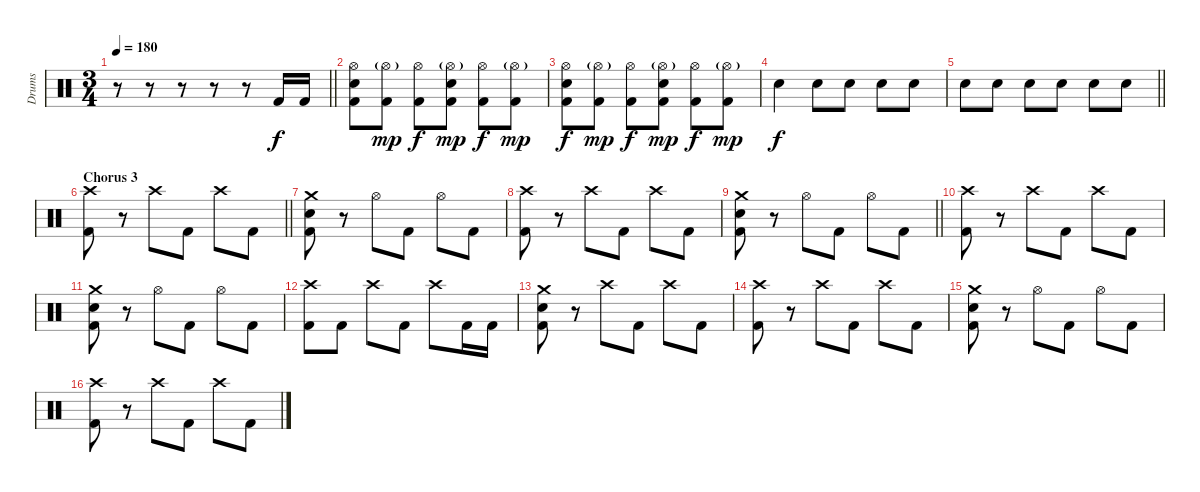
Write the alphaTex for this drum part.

\track ("Drums" "Drums") {instrument percussion}
\staff {score}
\articulation defaults
\ts (3 4)
\tempo 180
\clef neutral
\barLineRight lightlight
\ks c
r.8{dy f} r.8 r.8 r.8 r.8 "Kick (hit) 2".16 "Kick (hit) 2".16 |
("Hi-Hat (open)" "Electric Snare (hit)" "Kick (hit) 2").8 ("Hi-Hat (open)"{g} "Kick (hit) 2").8{dy mp} ("Hi-Hat (open)" "Kick (hit) 2").8{dy f} ("Hi-Hat (open)"{g} "Electric Snare (hit)" "Kick (hit) 2").8{dy mp} ("Hi-Hat (open)" "Kick (hit) 2").8{dy f} ("Hi-Hat (open)"{g} "Kick (hit) 2").8{dy mp} |
("Hi-Hat (open)" "Electric Snare (hit)" "Kick (hit) 2").8{dy f} ("Hi-Hat (open)"{g} "Kick (hit) 2").8{dy mp} ("Hi-Hat (open)" "Kick (hit) 2").8{dy f} ("Hi-Hat (open)"{g} "Electric Snare (hit)" "Kick (hit) 2").8{dy mp} ("Hi-Hat (open)" "Kick (hit) 2").8{dy f} ("Hi-Hat (open)"{g} "Kick (hit) 2").8{dy mp} |
"Electric Snare (hit)".4{dy f} "Electric Snare (hit)".8{volume 3} "Electric Snare (hit)".8{volume 13} "Electric Snare (hit)".8 "Electric Snare (hit)".8 |
\barLineRight lightlight "Electric Snare (hit)".8 "Electric Snare (hit)".8 "Electric Snare (hit)".8 "Electric Snare (hit)".8 "Electric Snare (hit)".8 "Electric Snare (hit)".8
|
\section ("" "Chorus 3")
\barLineRight lightlight
("Crash high (hit)" "Kick (hit) 2").8 r.8 "Crash high (hit)".8 "Kick (hit) 2".8 "Crash high (hit)".8 "Kick (hit) 2".8 |
("Crash medium (hit)" "Electric Snare (hit)" "Kick (hit) 2").8 r.8 "Hi-Hat (open)".8 "Kick (hit) 2".8 "Hi-Hat (open)".8 "Kick (hit) 2".8 |
("Crash high (hit)" "Kick (hit) 2").8 r.8 "Crash high (hit)".8 "Kick (hit) 2".8 "Crash high (hit)".8 "Kick (hit) 2".8 |
\barLineRight lightlight
("Crash medium (hit)" "Electric Snare (hit)" "Kick (hit) 2").8 r.8 "Hi-Hat (open)".8 "Kick (hit) 2".8 "Hi-Hat (open)".8 "Kick (hit) 2".8 |
("Crash high (hit)" "Kick (hit) 2").8 r.8 "Crash high (hit)".8 "Kick (hit) 2".8 "Crash high (hit)".8 "Kick (hit) 2".8 |
("Crash medium (hit)" "Electric Snare (hit)" "Kick (hit) 2").8 r.8 "Hi-Hat (open)".8 "Kick (hit) 2".8 "Hi-Hat (open)".8 "Kick (hit) 2".8 |
("Crash high (hit)" "Kick (hit) 2").8 "Kick (hit) 2".8 "Crash high (hit)".8 "Kick (hit) 2".8 "Crash high (hit)".8 "Kick (hit) 2".16 "Kick (hit) 2".16 |
("Crash medium (hit)" "Electric Snare (hit)" "Kick (hit) 2").8 r.8 "Crash high (hit)".8 "Kick (hit) 2".8 "Crash high (hit)".8 "Kick (hit) 2".8 |
("Crash high (hit)" "Kick (hit) 2").8 r.8 "Crash high (hit)".8 "Kick (hit) 2".8 "Crash high (hit)".8 "Kick (hit) 2".8 |
("Crash medium (hit)" "Electric Snare (hit)" "Kick (hit) 2").8 r.8 "Hi-Hat (open)".8 "Kick (hit) 2".8 "Hi-Hat (open)".8 "Kick (hit) 2".8 |
("Crash high (hit)" "Kick (hit) 2").8 r.8 "Crash high (hit)".8 "Kick (hit) 2".8 "Crash high (hit)".8 "Kick (hit) 2".8
